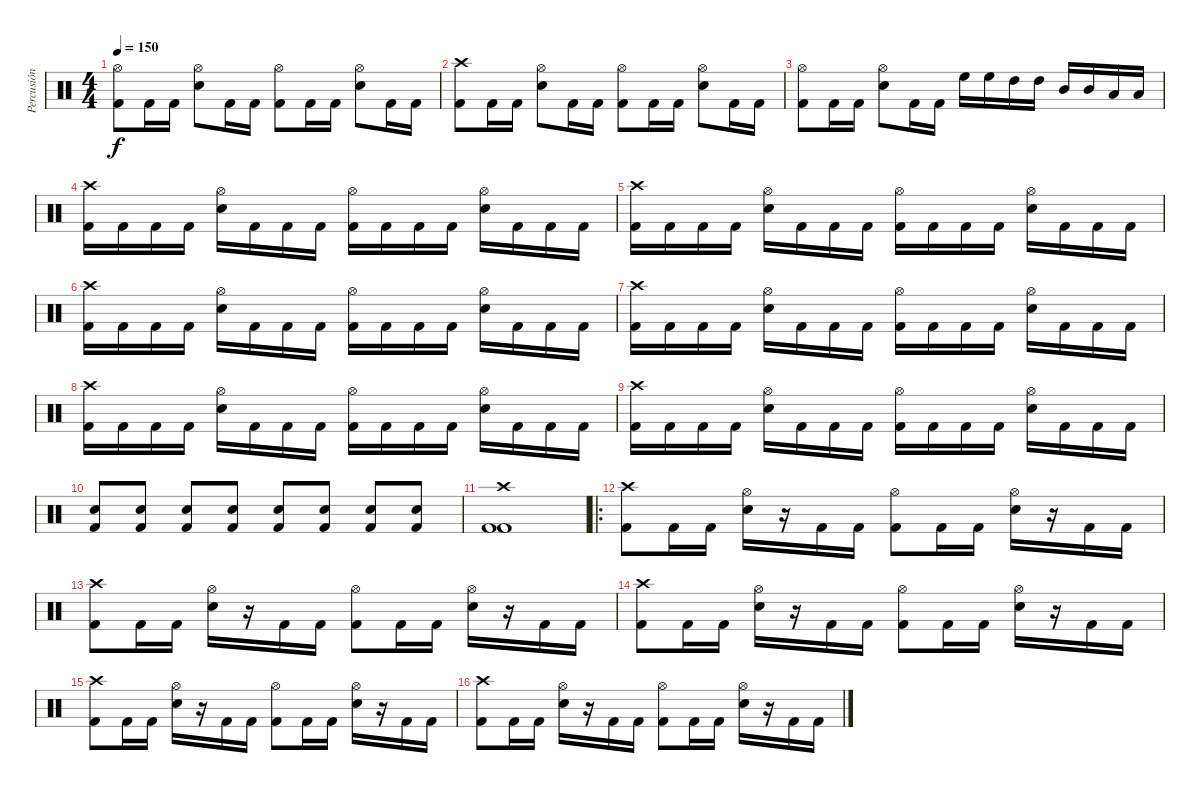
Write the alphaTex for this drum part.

\track ("Percusión" "Percusión") {instrument percussion}
\staff {score}
\articulation defaults
\ts (4 4)
\tempo 150
\clef neutral
\ks c
("Hi-Hat (open)" "Kick (hit) 2").8{dy f} "Kick (hit) 2".16 "Kick (hit) 2".16 ("Hi-Hat (open)" "Electric Snare (hit)").8 "Kick (hit) 2".16 "Kick (hit) 2".16 ("Hi-Hat (open)" "Kick (hit) 2").8 "Kick (hit) 2".16 "Kick (hit) 2".16 ("Hi-Hat (open)" "Electric Snare (hit)").8 "Kick (hit) 2".16 "Kick (hit) 2".16 |
("Crash high (hit)" "Kick (hit) 2").8 "Kick (hit) 2".16 "Kick (hit) 2".16 ("Hi-Hat (open)" "Electric Snare (hit)").8 "Kick (hit) 2".16 "Kick (hit) 2".16 ("Hi-Hat (open)" "Kick (hit) 2").8 "Kick (hit) 2".16 "Kick (hit) 2".16 ("Hi-Hat (open)" "Electric Snare (hit)").8 "Kick (hit) 2".16 "Kick (hit) 2".16 |
("Hi-Hat (open)" "Kick (hit) 2").8 "Kick (hit) 2".16 "Kick (hit) 2".16 ("Hi-Hat (open)" "Electric Snare (hit)").8 "Kick (hit) 2".16 "Kick (hit) 2".16 "High Floor Tom (hit)".16 "High Floor Tom (hit)".16 "High Tom (hit)".16 "High Tom (hit)".16 "Mid Tom (hit)".16 "Mid Tom (hit)".16 "Low Tom (hit)".16 "Low Tom (hit)".16 |
("Crash high (hit)" "Kick (hit) 2").16 "Kick (hit) 2".16 "Kick (hit) 2".16 "Kick (hit) 2".16 ("Hi-Hat (open)" "Electric Snare (hit)").16 "Kick (hit) 2".16 "Kick (hit) 2".16 "Kick (hit) 2".16 ("Hi-Hat (open)" "Kick (hit) 2").16 "Kick (hit) 2".16 "Kick (hit) 2".16 "Kick (hit) 2".16 ("Hi-Hat (open)" "Electric Snare (hit)").16 "Kick (hit) 2".16 "Kick (hit) 2".16 "Kick (hit) 2".16 |
("Crash high (hit)" "Kick (hit) 2").16 "Kick (hit) 2".16 "Kick (hit) 2".16 "Kick (hit) 2".16 ("Hi-Hat (open)" "Electric Snare (hit)").16 "Kick (hit) 2".16 "Kick (hit) 2".16 "Kick (hit) 2".16 ("Hi-Hat (open)" "Kick (hit) 2").16 "Kick (hit) 2".16 "Kick (hit) 2".16 "Kick (hit) 2".16 ("Hi-Hat (open)" "Electric Snare (hit)").16 "Kick (hit) 2".16 "Kick (hit) 2".16 "Kick (hit) 2".16 |
("Crash high (hit)" "Kick (hit) 2").16 "Kick (hit) 2".16 "Kick (hit) 2".16 "Kick (hit) 2".16 ("Hi-Hat (open)" "Electric Snare (hit)").16 "Kick (hit) 2".16 "Kick (hit) 2".16 "Kick (hit) 2".16 ("Hi-Hat (open)" "Kick (hit) 2").16 "Kick (hit) 2".16 "Kick (hit) 2".16 "Kick (hit) 2".16 ("Hi-Hat (open)" "Electric Snare (hit)").16 "Kick (hit) 2".16 "Kick (hit) 2".16 "Kick (hit) 2".16 |
("Crash high (hit)" "Kick (hit) 2").16 "Kick (hit) 2".16 "Kick (hit) 2".16 "Kick (hit) 2".16 ("Hi-Hat (open)" "Electric Snare (hit)").16 "Kick (hit) 2".16 "Kick (hit) 2".16 "Kick (hit) 2".16 ("Hi-Hat (open)" "Kick (hit) 2").16 "Kick (hit) 2".16 "Kick (hit) 2".16 "Kick (hit) 2".16 ("Hi-Hat (open)" "Electric Snare (hit)").16 "Kick (hit) 2".16 "Kick (hit) 2".16 "Kick (hit) 2".16 |
("Crash high (hit)" "Kick (hit) 2").16 "Kick (hit) 2".16 "Kick (hit) 2".16 "Kick (hit) 2".16 ("Hi-Hat (open)" "Electric Snare (hit)").16 "Kick (hit) 2".16 "Kick (hit) 2".16 "Kick (hit) 2".16 ("Hi-Hat (open)" "Kick (hit) 2").16 "Kick (hit) 2".16 "Kick (hit) 2".16 "Kick (hit) 2".16 ("Hi-Hat (open)" "Electric Snare (hit)").16 "Kick (hit) 2".16 "Kick (hit) 2".16 "Kick (hit) 2".16 |
("Crash high (hit)" "Kick (hit) 2").16 "Kick (hit) 2".16 "Kick (hit) 2".16 "Kick (hit) 2".16 ("Hi-Hat (open)" "Electric Snare (hit)").16 "Kick (hit) 2".16 "Kick (hit) 2".16 "Kick (hit) 2".16 ("Hi-Hat (open)" "Kick (hit) 2").16 "Kick (hit) 2".16 "Kick (hit) 2".16 "Kick (hit) 2".16 ("Hi-Hat (open)" "Electric Snare (hit)").16 "Kick (hit) 2".16 "Kick (hit) 2".16 "Kick (hit) 2".16 |
("Kick (hit) 2" "Electric Snare (hit)").8 ("Kick (hit) 2" "Electric Snare (hit)").8 ("Kick (hit) 2" "Electric Snare (hit)").8 ("Kick (hit) 2" "Electric Snare (hit)").8 ("Kick (hit) 2" "Electric Snare (hit)").8 ("Kick (hit) 2" "Electric Snare (hit)").8 ("Kick (hit) 2" "Electric Snare (hit)").8 ("Kick (hit) 2" "Electric Snare (hit)").8 |
("Crash high (hit)" "Kick (hit) 2" "Kick (hit) 2").1 |
\ro
("Crash high (hit)" "Kick (hit) 2").8 "Kick (hit) 2".16 "Kick (hit) 2".16 ("Hi-Hat (open)" "Electric Snare (hit)").16 r.16 "Kick (hit) 2".16 "Kick (hit) 2".16 ("Hi-Hat (open)" "Kick (hit) 2").8 "Kick (hit) 2".16 "Kick (hit) 2".16 ("Hi-Hat (open)" "Electric Snare (hit)").16 r.16 "Kick (hit) 2".16 "Kick (hit) 2".16 |
("Crash high (hit)" "Kick (hit) 2").8 "Kick (hit) 2".16 "Kick (hit) 2".16 ("Hi-Hat (open)" "Electric Snare (hit)").16 r.16 "Kick (hit) 2".16 "Kick (hit) 2".16 ("Hi-Hat (open)" "Kick (hit) 2").8 "Kick (hit) 2".16 "Kick (hit) 2".16 ("Hi-Hat (open)" "Electric Snare (hit)").16 r.16 "Kick (hit) 2".16 "Kick (hit) 2".16 |
("Crash high (hit)" "Kick (hit) 2").8 "Kick (hit) 2".16 "Kick (hit) 2".16 ("Hi-Hat (open)" "Electric Snare (hit)").16 r.16 "Kick (hit) 2".16 "Kick (hit) 2".16 ("Hi-Hat (open)" "Kick (hit) 2").8 "Kick (hit) 2".16 "Kick (hit) 2".16 ("Hi-Hat (open)" "Electric Snare (hit)").16 r.16 "Kick (hit) 2".16 "Kick (hit) 2".16 |
("Crash high (hit)" "Kick (hit) 2").8 "Kick (hit) 2".16 "Kick (hit) 2".16 ("Hi-Hat (open)" "Electric Snare (hit)").16 r.16 "Kick (hit) 2".16 "Kick (hit) 2".16 ("Hi-Hat (open)" "Kick (hit) 2").8 "Kick (hit) 2".16 "Kick (hit) 2".16 ("Hi-Hat (open)" "Electric Snare (hit)").16 r.16 "Kick (hit) 2".16 "Kick (hit) 2".16 |
("Crash high (hit)" "Kick (hit) 2").8 "Kick (hit) 2".16 "Kick (hit) 2".16 ("Hi-Hat (open)" "Electric Snare (hit)").16 r.16 "Kick (hit) 2".16 "Kick (hit) 2".16 ("Hi-Hat (open)" "Kick (hit) 2").8 "Kick (hit) 2".16 "Kick (hit) 2".16 ("Hi-Hat (open)" "Electric Snare (hit)").16 r.16 "Kick (hit) 2".16 "Kick (hit) 2".16
